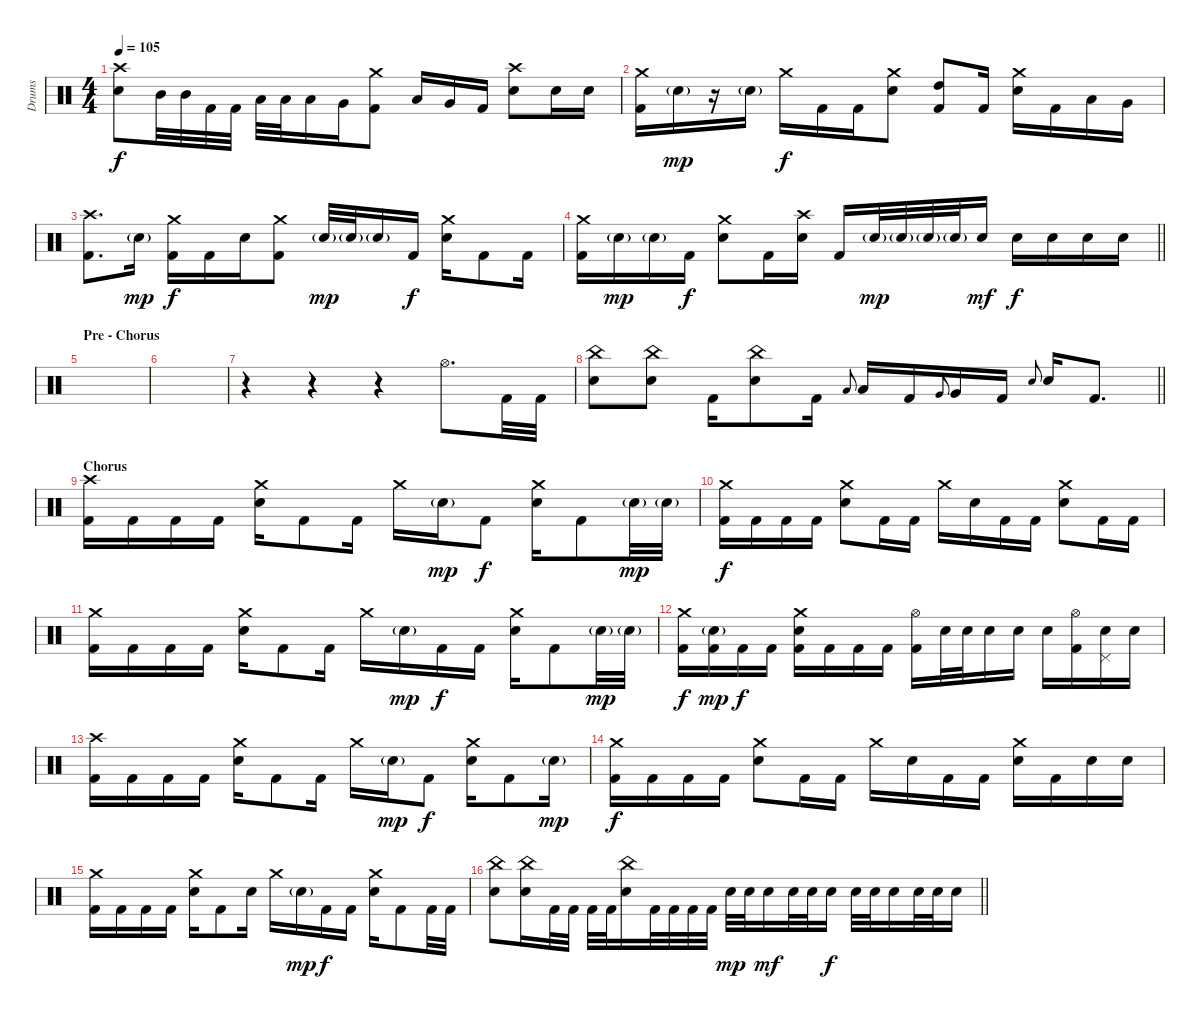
\track ("Drums" "Drums") {instrument percussion}
\staff {score}
\articulation defaults
\ts (4 4)
\tempo 105
\clef neutral
\ks c
("Crash high (hit)" "Electric Snare (hit)").8{dy f} "Mid Tom (hit)".32 "Mid Tom (hit)".32 "Kick (hit) 2".32 "Kick (hit) 2".32 "Low Tom (hit)".32 "Low Tom (hit)".32 "Low Tom (hit)".16 "Very Low Tom (hit)".16 ("Crash medium (hit)" "Kick (hit) 2").8 "Low Tom (hit)".16 "Very Low Tom (hit)".16 "Kick (hit) 2".16 ("Crash high (hit)" "Electric Snare (hit)").8 "Electric Snare (hit)".16 "Electric Snare (hit)".16 |
("Crash medium (hit)" "Kick (hit) 2").16 "Electric Snare (hit)"{g}.16{dy mp} r.16 "Electric Snare (hit)"{g}.16 "Crash medium (hit)".16{dy f} "Kick (hit) 2".16 "Kick (hit) 2".16 ("Crash medium (hit)" "Electric Snare (hit)").8 ("High Tom (hit)" "Kick (hit) 2").8 "Kick (hit) 2".16 ("Crash medium (hit)" "Electric Snare (hit)").16 "Kick (hit) 2".16 "Low Tom (hit)".16 "Very Low Tom (hit)".16 |
("Crash high (hit)" "Kick (hit) 2").8{d} "Electric Snare (hit)"{g}.16{dy mp} ("Crash medium (hit)" "Kick (hit) 2").16{dy f} "Kick (hit) 2".16 "Electric Snare (hit)".16 ("Crash medium (hit)" "Kick (hit) 2").8 "Electric Snare (hit)"{g}.32{dy mp} "Electric Snare (hit)"{g}.32 "Electric Snare (hit)"{g}.16 "Kick (hit) 2".16{dy f} ("Crash medium (hit)" "Electric Snare (hit)").16 "Kick (hit) 2".8 "Kick (hit) 2".16 |
\barLineRight lightlight
("Crash medium (hit)" "Kick (hit) 2").16 "Electric Snare (hit)"{g}.16{dy mp} "Electric Snare (hit)"{g}.16 "Kick (hit) 2".16{dy f} ("Crash medium (hit)" "Electric Snare (hit)").8 "Kick (hit) 2".16 ("Crash high (hit)" "Electric Snare (hit)").16 "Kick (hit) 2".16 "Electric Snare (hit)"{g}.32{dy mp} "Electric Snare (hit)"{g}.32 "Electric Snare (hit)"{g}.32 "Electric Snare (hit)"{g}.32 "Electric Snare (hit)".16{dy mf} "Electric Snare (hit)".16{dy f} "Electric Snare (hit)".16 "Electric Snare (hit)".16 "Electric Snare (hit)".16 |
\section ("" "Pre - Chorus")
|
|
r.4 r.4 r.4 "Hi-Hat (open)".8{d} "Kick (hit) 2".32 "Kick (hit) 2".32 |
\barLineRight lightlight
("China (hit)" "Electric Snare (hit)").8 ("China (hit)" "Electric Snare (hit)").8 "Kick (hit) 2".16 ("China (hit)" "Electric Snare (hit)").8 "Kick (hit) 2".16 "Low Tom (hit)".8{gr onbeat} "Low Tom (hit)".16 "Kick (hit) 2".16 "Very Low Tom (hit)".8{gr onbeat} "Very Low Tom (hit)".16 "Kick (hit) 2".16 "Electric Snare (hit)".8{gr onbeat} "Electric Snare (hit)".16 "Kick (hit) 2".8{d} |
\section ("" "Chorus")
("Crash high (hit)" "Kick (hit) 2").16 "Kick (hit) 2".16 "Kick (hit) 2".16 "Kick (hit) 2".16 ("Crash medium (hit)" "Electric Snare (hit)").16 "Kick (hit) 2".8 "Kick (hit) 2".16 "Crash medium (hit)".16 "Electric Snare (hit)"{g}.16{dy mp} "Kick (hit) 2".8{dy f} ("Crash medium (hit)" "Electric Snare (hit)").16 "Kick (hit) 2".8 "Electric Snare (hit)"{g}.32{dy mp} "Electric Snare (hit)"{g}.32 |
("Crash medium (hit)" "Kick (hit) 2").16{dy f} "Kick (hit) 2".16 "Kick (hit) 2".16 "Kick (hit) 2".16 ("Crash medium (hit)" "Electric Snare (hit)").8 "Kick (hit) 2".16 "Kick (hit) 2".16 "Crash medium (hit)".16 "Electric Snare (hit)".16 "Kick (hit) 2".16 "Kick (hit) 2".16 ("Crash medium (hit)" "Electric Snare (hit)").8 "Kick (hit) 2".16 "Kick (hit) 2".16 |
("Crash medium (hit)" "Kick (hit) 2").16 "Kick (hit) 2".16 "Kick (hit) 2".16 "Kick (hit) 2".16 ("Crash medium (hit)" "Electric Snare (hit)").16 "Kick (hit) 2".8 "Kick (hit) 2".16 "Crash medium (hit)".16 "Electric Snare (hit)"{g}.16{dy mp} "Kick (hit) 2".16{dy f} "Kick (hit) 2".16 ("Crash medium (hit)" "Electric Snare (hit)").16 "Kick (hit) 2".8 "Electric Snare (hit)"{g}.32{dy mp} "Electric Snare (hit)"{g}.32 |
("Crash medium (hit)" "Kick (hit) 2").16{dy f} ("Electric Snare (hit)"{g} "Kick (hit) 2").16{dy mp} "Kick (hit) 2".16{dy f} "Kick (hit) 2".16 ("Crash medium (hit)" "Electric Snare (hit)" "Kick (hit) 2").16 "Kick (hit) 2".16 "Kick (hit) 2".16 "Kick (hit) 2".16 ("Hi-Hat (open)" "Kick (hit) 2").16 "Electric Snare (hit)".32 "Electric Snare (hit)".32 "Electric Snare (hit)".16 "Electric Snare (hit)".16 "Electric Snare (hit)".16 ("Hi-Hat (open)" "Kick (hit) 2").16 ("Pedal Hi-Hat (hit)" "Electric Snare (hit)").16 "Electric Snare (hit)".16 |
("Crash high (hit)" "Kick (hit) 2").16 "Kick (hit) 2".16 "Kick (hit) 2".16 "Kick (hit) 2".16 ("Crash medium (hit)" "Electric Snare (hit)").16 "Kick (hit) 2".8 "Kick (hit) 2".16 "Crash medium (hit)".16 "Electric Snare (hit)"{g}.16{dy mp} "Kick (hit) 2".8{dy f} ("Crash medium (hit)" "Electric Snare (hit)").16 "Kick (hit) 2".8 "Electric Snare (hit)"{g}.16{dy mp} |
("Crash medium (hit)" "Kick (hit) 2").16{dy f} "Kick (hit) 2".16 "Kick (hit) 2".16 "Kick (hit) 2".16 ("Crash medium (hit)" "Electric Snare (hit)").8 "Kick (hit) 2".16 "Kick (hit) 2".16 "Crash medium (hit)".16 "Electric Snare (hit)".16 "Kick (hit) 2".16 "Kick (hit) 2".16 ("Crash medium (hit)" "Electric Snare (hit)").16 "Kick (hit) 2".16 "Electric Snare (hit)".16 "Electric Snare (hit)".16 |
("Crash medium (hit)" "Kick (hit) 2").16 "Kick (hit) 2".16 "Kick (hit) 2".16 "Kick (hit) 2".16 ("Crash medium (hit)" "Electric Snare (hit)").16 "Kick (hit) 2".8 "Electric Snare (hit)".16 "Crash medium (hit)".16 "Electric Snare (hit)"{g}.16{dy mp} "Kick (hit) 2".16{dy f} "Kick (hit) 2".16 ("Crash medium (hit)" "Electric Snare (hit)").16 "Kick (hit) 2".8 "Kick (hit) 2".32 "Kick (hit) 2".32 |
\barLineRight lightlight
("China (hit)" "Electric Snare (hit)").8 ("China (hit)" "Electric Snare (hit)").16 "Kick (hit) 2".32 "Kick (hit) 2".32 "Kick (hit) 2".32 "Kick (hit) 2".32 ("China (hit)" "Electric Snare (hit)").16 "Kick (hit) 2".32 "Kick (hit) 2".32 "Kick (hit) 2".32 "Kick (hit) 2".32 "Electric Snare (hit)".32{dy mp} "Electric Snare (hit)".32 "Electric Snare (hit)".16{dy mf} "Electric Snare (hit)".32 "Electric Snare (hit)".32 "Electric Snare (hit)".16{dy f} "Electric Snare (hit)".32 "Electric Snare (hit)".32 "Electric Snare (hit)".16 "Electric Snare (hit)".32 "Electric Snare (hit)".32 "Electric Snare (hit)".16
